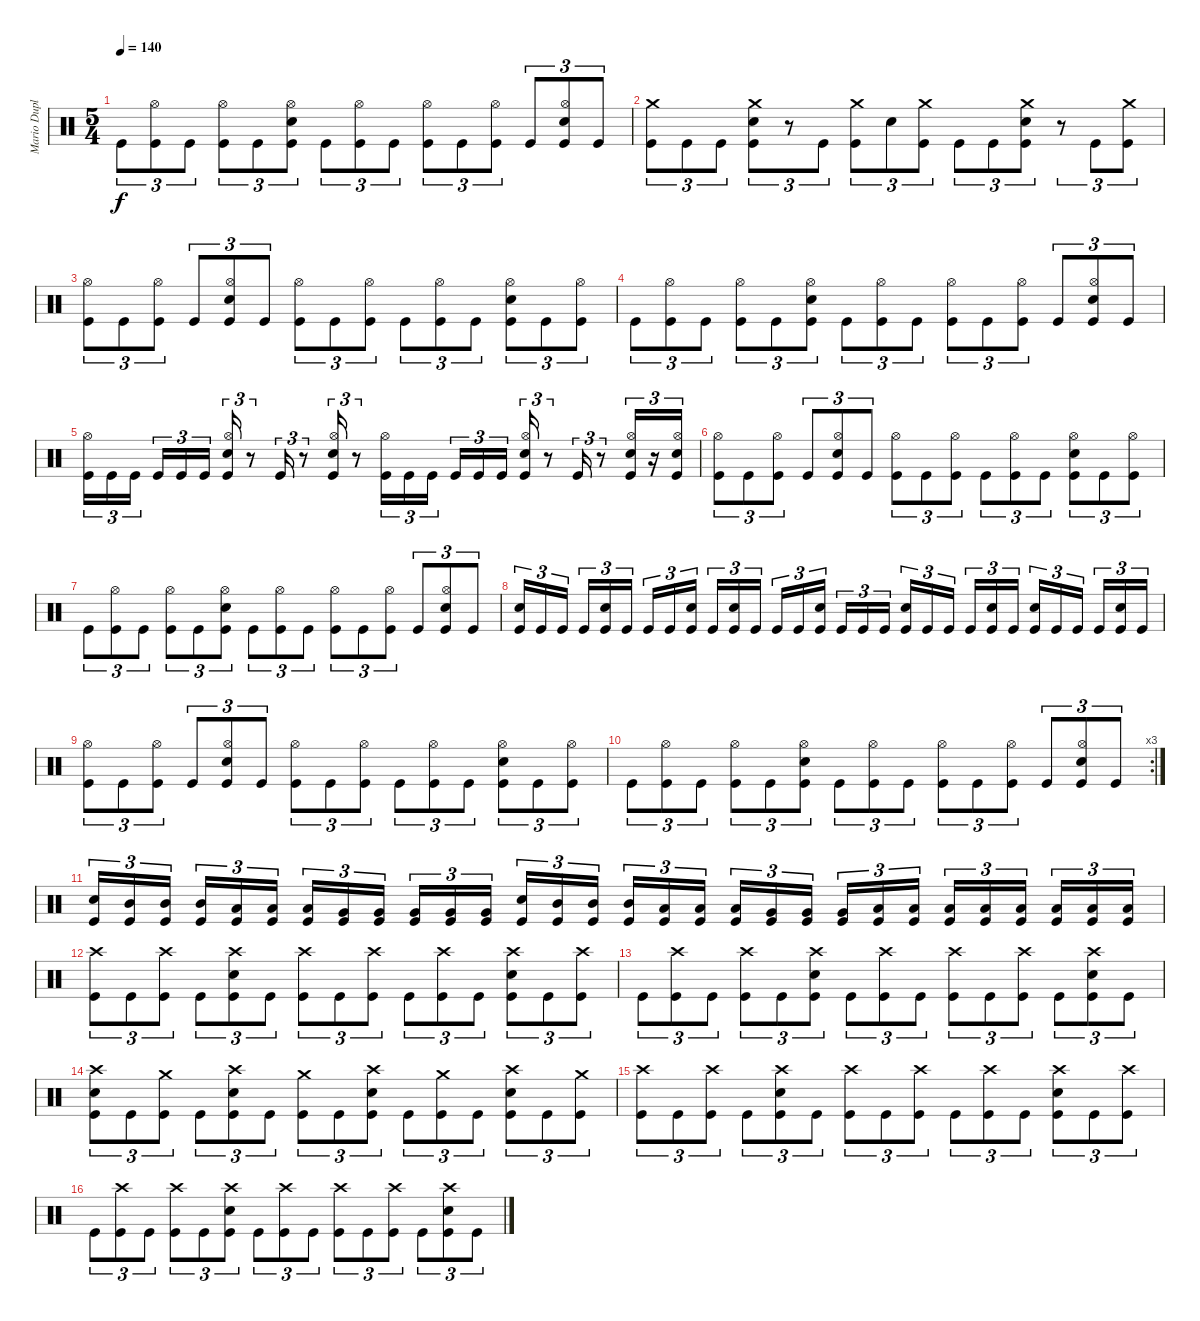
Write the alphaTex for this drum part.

\track ("Mario Duplantier" "Mario Dupl") {instrument percussion}
\staff {score}
\articulation defaults
\ts (5 4)
\tempo 140
\clef neutral
\ks c "Kick (hit)".8{tu (3 2) dy f}
("Hi-Hat (open)" "Kick (hit)").8{tu (3 2)} "Kick (hit)".8{tu (3 2)} ("Hi-Hat (open)" "Kick (hit)").8{tu (3 2)} "Kick (hit)".8{tu (3 2)} ("Hi-Hat (open)" "Electric Snare (hit)" "Kick (hit)").8{tu (3 2)} "Kick (hit)".8{tu (3 2)} ("Hi-Hat (open)" "Kick (hit)").8{tu (3 2)} "Kick (hit)".8{tu (3 2)} ("Hi-Hat (open)" "Kick (hit)").8{tu (3 2)} "Kick (hit)".8{tu (3 2)} ("Hi-Hat (open)" "Kick (hit)").8{tu (3 2)} "Kick (hit)".8{tu (3 2)} ("Hi-Hat (open)" "Electric Snare (hit)" "Kick (hit)").8{tu (3 2)} "Kick (hit)".8{tu (3 2)} |
("Crash medium (hit)" "Kick (hit)").8{tu (3 2)} "Kick (hit)".8{tu (3 2)} "Kick (hit)".8{tu (3 2)} ("Crash medium (hit)" "Electric Snare (hit)" "Kick (hit)").8{tu (3 2)} r.8{tu (3 2)} "Kick (hit)".8{tu (3 2)} ("Crash medium (hit)" "Kick (hit)").8{tu (3 2)} "Electric Snare (hit)".8{tu (3 2)} ("Crash medium (hit)" "Kick (hit)").8{tu (3 2)} "Kick (hit)".8{tu (3 2)} "Kick (hit)".8{tu (3 2)} ("Crash medium (hit)" "Electric Snare (hit)" "Kick (hit)").8{tu (3 2)} r.8{tu (3 2)} "Kick (hit)".8{tu (3 2)} ("Crash medium (hit)" "Kick (hit)").8{tu (3 2)} |
("Hi-Hat (open)" "Kick (hit)").8{tu (3 2)} "Kick (hit)".8{tu (3 2)} ("Hi-Hat (open)" "Kick (hit)").8{tu (3 2)} "Kick (hit)".8{tu (3 2)} ("Hi-Hat (open)" "Electric Snare (hit)" "Kick (hit)").8{tu (3 2)} "Kick (hit)".8{tu (3 2)} ("Hi-Hat (open)" "Kick (hit)").8{tu (3 2)} "Kick (hit)".8{tu (3 2)} ("Hi-Hat (open)" "Kick (hit)").8{tu (3 2)} "Kick (hit)".8{tu (3 2)} ("Hi-Hat (open)" "Kick (hit)").8{tu (3 2)} "Kick (hit)".8{tu (3 2)} ("Hi-Hat (open)" "Electric Snare (hit)" "Kick (hit)").8{tu (3 2)} "Kick (hit)".8{tu (3 2)} ("Hi-Hat (open)" "Kick (hit)").8{tu (3 2)} |
"Kick (hit)".8{tu (3 2)} ("Hi-Hat (open)" "Kick (hit)").8{tu (3 2)} "Kick (hit)".8{tu (3 2)} ("Hi-Hat (open)" "Kick (hit)").8{tu (3 2)} "Kick (hit)".8{tu (3 2)} ("Hi-Hat (open)" "Electric Snare (hit)" "Kick (hit)").8{tu (3 2)} "Kick (hit)".8{tu (3 2)} ("Hi-Hat (open)" "Kick (hit)").8{tu (3 2)} "Kick (hit)".8{tu (3 2)} ("Hi-Hat (open)" "Kick (hit)").8{tu (3 2)} "Kick (hit)".8{tu (3 2)} ("Hi-Hat (open)" "Kick (hit)").8{tu (3 2)} "Kick (hit)".8{tu (3 2)} ("Hi-Hat (open)" "Electric Snare (hit)" "Kick (hit)").8{tu (3 2)} "Kick (hit)".8{tu (3 2)} |
("Hi-Hat (open)" "Kick (hit)").16{tu (3 2)} "Kick (hit)".16{tu (3 2)} "Kick (hit)".16{tu (3 2) beam splitsecondary} "Kick (hit)".16{tu (3 2)} "Kick (hit)".16{tu (3 2)} "Kick (hit)".16{tu (3 2)} ("Hi-Hat (open)" "Electric Snare (hit)" "Kick (hit)").16{tu (3 2)} r.8{tu (3 2)} "Kick (hit)".16{tu (3 2)} r.8{tu (3 2)} ("Hi-Hat (open)" "Electric Snare (hit)" "Kick (hit)").16{tu (3 2)} r.8{tu (3 2)} ("Hi-Hat (open)" "Kick (hit)").16{tu (3 2)} "Kick (hit)".16{tu (3 2)} "Kick (hit)".16{tu (3 2)} "Kick (hit)".16{tu (3 2)} "Kick (hit)".16{tu (3 2)} "Kick (hit)".16{tu (3 2) beam splitsecondary} ("Hi-Hat (open)" "Electric Snare (hit)" "Kick (hit)").16{tu (3 2)} r.8{tu (3 2)} "Kick (hit)".16{tu (3 2)} r.8{tu (3 2)} ("Hi-Hat (open)" "Electric Snare (hit)" "Kick (hit)").16{tu (3 2)} r.16{tu (3 2)} ("Hi-Hat (open)" "Electric Snare (hit)" "Kick (hit)").16{tu (3 2)} |
("Hi-Hat (open)" "Kick (hit)").8{tu (3 2)} "Kick (hit)".8{tu (3 2)} ("Hi-Hat (open)" "Kick (hit)").8{tu (3 2)} "Kick (hit)".8{tu (3 2)} ("Hi-Hat (open)" "Electric Snare (hit)" "Kick (hit)").8{tu (3 2)} "Kick (hit)".8{tu (3 2)} ("Hi-Hat (open)" "Kick (hit)").8{tu (3 2)} "Kick (hit)".8{tu (3 2)} ("Hi-Hat (open)" "Kick (hit)").8{tu (3 2)} "Kick (hit)".8{tu (3 2)} ("Hi-Hat (open)" "Kick (hit)").8{tu (3 2)} "Kick (hit)".8{tu (3 2)} ("Hi-Hat (open)" "Electric Snare (hit)" "Kick (hit)").8{tu (3 2)} "Kick (hit)".8{tu (3 2)} ("Hi-Hat (open)" "Kick (hit)").8{tu (3 2)} |
"Kick (hit)".8{tu (3 2)} ("Hi-Hat (open)" "Kick (hit)").8{tu (3 2)} "Kick (hit)".8{tu (3 2)} ("Hi-Hat (open)" "Kick (hit)").8{tu (3 2)} "Kick (hit)".8{tu (3 2)} ("Hi-Hat (open)" "Electric Snare (hit)" "Kick (hit)").8{tu (3 2)} "Kick (hit)".8{tu (3 2)} ("Hi-Hat (open)" "Kick (hit)").8{tu (3 2)} "Kick (hit)".8{tu (3 2)} ("Hi-Hat (open)" "Kick (hit)").8{tu (3 2)} "Kick (hit)".8{tu (3 2)} ("Hi-Hat (open)" "Kick (hit)").8{tu (3 2)} "Kick (hit)".8{tu (3 2)} ("Hi-Hat (open)" "Electric Snare (hit)" "Kick (hit)").8{tu (3 2)} "Kick (hit)".8{tu (3 2)} |
("Electric Snare (hit)" "Kick (hit)").16{tu (3 2)} "Kick (hit)".16{tu (3 2)} "Kick (hit)".16{tu (3 2) beam splitsecondary} "Kick (hit)".16{tu (3 2)} ("Electric Snare (hit)" "Kick (hit)").16{tu (3 2)} "Kick (hit)".16{tu (3 2)} "Kick (hit)".16{tu (3 2)} "Kick (hit)".16{tu (3 2)} ("Electric Snare (hit)" "Kick (hit)").16{tu (3 2) beam splitsecondary} "Kick (hit)".16{tu (3 2)} ("Electric Snare (hit)" "Kick (hit)").16{tu (3 2)} "Kick (hit)".16{tu (3 2)} "Kick (hit)".16{tu (3 2)} "Kick (hit)".16{tu (3 2)} ("Electric Snare (hit)" "Kick (hit)").16{tu (3 2) beam splitsecondary} "Kick (hit)".16{tu (3 2)} "Kick (hit)".16{tu (3 2)} "Kick (hit)".16{tu (3 2)} ("Electric Snare (hit)" "Kick (hit)").16{tu (3 2)} "Kick (hit)".16{tu (3 2)} "Kick (hit)".16{tu (3 2) beam splitsecondary} "Kick (hit)".16{tu (3 2)} ("Electric Snare (hit)" "Kick (hit)").16{tu (3 2)} "Kick (hit)".16{tu (3 2)} ("Electric Snare (hit)" "Kick (hit)").16{tu (3 2)} "Kick (hit)".16{tu (3 2)} "Kick (hit)".16{tu (3 2) beam splitsecondary} "Kick (hit)".16{tu (3 2)} ("Electric Snare (hit)" "Kick (hit)").16{tu (3 2)} "Kick (hit)".16{tu (3 2)} |
("Hi-Hat (open)" "Kick (hit)").8{tu (3 2)} "Kick (hit)".8{tu (3 2)} ("Hi-Hat (open)" "Kick (hit)").8{tu (3 2)} "Kick (hit)".8{tu (3 2)} ("Hi-Hat (open)" "Electric Snare (hit)" "Kick (hit)").8{tu (3 2)} "Kick (hit)".8{tu (3 2)} ("Hi-Hat (open)" "Kick (hit)").8{tu (3 2)} "Kick (hit)".8{tu (3 2)} ("Hi-Hat (open)" "Kick (hit)").8{tu (3 2)} "Kick (hit)".8{tu (3 2)} ("Hi-Hat (open)" "Kick (hit)").8{tu (3 2)} "Kick (hit)".8{tu (3 2)} ("Hi-Hat (open)" "Electric Snare (hit)" "Kick (hit)").8{tu (3 2)} "Kick (hit)".8{tu (3 2)} ("Hi-Hat (open)" "Kick (hit)").8{tu (3 2)} |
\rc 3 "Kick (hit)".8{tu (3 2)}
("Hi-Hat (open)" "Kick (hit)").8{tu (3 2)} "Kick (hit)".8{tu (3 2)} ("Hi-Hat (open)" "Kick (hit)").8{tu (3 2)} "Kick (hit)".8{tu (3 2)} ("Hi-Hat (open)" "Electric Snare (hit)" "Kick (hit)").8{tu (3 2)} "Kick (hit)".8{tu (3 2)} ("Hi-Hat (open)" "Kick (hit)").8{tu (3 2)} "Kick (hit)".8{tu (3 2)} ("Hi-Hat (open)" "Kick (hit)").8{tu (3 2)} "Kick (hit)".8{tu (3 2)} ("Hi-Hat (open)" "Kick (hit)").8{tu (3 2)} "Kick (hit)".8{tu (3 2)} ("Hi-Hat (open)" "Electric Snare (hit)" "Kick (hit)").8{tu (3 2)} "Kick (hit)".8{tu (3 2)} |
("Electric Snare (hit)" "Kick (hit)").16{tu (3 2)} ("Mid Tom (hit)" "Kick (hit)").16{tu (3 2)} ("Mid Tom (hit)" "Kick (hit)").16{tu (3 2) beam splitsecondary} ("Mid Tom (hit)" "Kick (hit)").16{tu (3 2)} ("Low Tom (hit)" "Kick (hit)").16{tu (3 2)} ("Low Tom (hit)" "Kick (hit)").16{tu (3 2)} ("Low Tom (hit)" "Kick (hit)").16{tu (3 2)} ("Very Low Tom (hit)" "Kick (hit)").16{tu (3 2)} ("Very Low Tom (hit)" "Kick (hit)").16{tu (3 2) beam splitsecondary} ("Very Low Tom (hit)" "Kick (hit)").16{tu (3 2)} ("Very Low Tom (hit)" "Kick (hit)").16{tu (3 2)} ("Very Low Tom (hit)" "Kick (hit)").16{tu (3 2)} ("Electric Snare (hit)" "Kick (hit)").16{tu (3 2)} ("Mid Tom (hit)" "Kick (hit)").16{tu (3 2)} ("Mid Tom (hit)" "Kick (hit)").16{tu (3 2) beam splitsecondary} ("Mid Tom (hit)" "Kick (hit)").16{tu (3 2)} ("Low Tom (hit)" "Kick (hit)").16{tu (3 2)} ("Low Tom (hit)" "Kick (hit)").16{tu (3 2)} ("Low Tom (hit)" "Kick (hit)").16{tu (3 2)} ("Very Low Tom (hit)" "Kick (hit)").16{tu (3 2)} ("Very Low Tom (hit)" "Kick (hit)").16{tu (3 2) beam splitsecondary} ("Very Low Tom (hit)" "Kick (hit)").16{tu (3 2)} ("Low Floor Tom (hit)" "Kick (hit)").16{tu (3 2)} ("Low Floor Tom (hit)" "Kick (hit)").16{tu (3 2)} ("Low Floor Tom (hit)" "Kick (hit)").16{tu (3 2)} ("Low Floor Tom (hit)" "Kick (hit)").16{tu (3 2)} ("Low Floor Tom (hit)" "Kick (hit)").16{tu (3 2) beam splitsecondary} ("Low Floor Tom (hit)" "Kick (hit)").16{tu (3 2)} ("Low Floor Tom (hit)" "Kick (hit)").16{tu (3 2)} ("Low Floor Tom (hit)" "Kick (hit)").16{tu (3 2)} |
("Crash high (hit)" "Kick (hit)").8{tu (3 2)} "Kick (hit)".8{tu (3 2)} ("Crash high (hit)" "Kick (hit)").8{tu (3 2)} "Kick (hit)".8{tu (3 2)} ("Crash high (hit)" "Electric Snare (hit)" "Kick (hit)").8{tu (3 2)} "Kick (hit)".8{tu (3 2)} ("Crash high (hit)" "Kick (hit)").8{tu (3 2)} "Kick (hit)".8{tu (3 2)} ("Crash high (hit)" "Kick (hit)").8{tu (3 2)} "Kick (hit)".8{tu (3 2)} ("Crash high (hit)" "Kick (hit)").8{tu (3 2)} "Kick (hit)".8{tu (3 2)} ("Crash high (hit)" "Electric Snare (hit)" "Kick (hit)").8{tu (3 2)} "Kick (hit)".8{tu (3 2)} ("Crash high (hit)" "Kick (hit)").8{tu (3 2)} |
"Kick (hit)".8{tu (3 2)} ("Crash high (hit)" "Kick (hit)").8{tu (3 2)} "Kick (hit)".8{tu (3 2)} ("Crash high (hit)" "Kick (hit)").8{tu (3 2)} "Kick (hit)".8{tu (3 2)} ("Crash high (hit)" "Electric Snare (hit)" "Kick (hit)").8{tu (3 2)} "Kick (hit)".8{tu (3 2)} ("Crash high (hit)" "Kick (hit)").8{tu (3 2)} "Kick (hit)".8{tu (3 2)} ("Crash high (hit)" "Kick (hit)").8{tu (3 2)} "Kick (hit)".8{tu (3 2)} ("Crash high (hit)" "Kick (hit)").8{tu (3 2)} "Kick (hit)".8{tu (3 2)} ("Crash high (hit)" "Electric Snare (hit)" "Kick (hit)").8{tu (3 2)} "Kick (hit)".8{tu (3 2)} |
("Crash high (hit)" "Electric Snare (hit)" "Kick (hit)").8{tu (3 2)} "Kick (hit)".8{tu (3 2)} ("Crash medium (hit)" "Kick (hit)").8{tu (3 2)} "Kick (hit)".8{tu (3 2)} ("Crash high (hit)" "Electric Snare (hit)" "Kick (hit)").8{tu (3 2)} "Kick (hit)".8{tu (3 2)} ("Crash medium (hit)" "Kick (hit)").8{tu (3 2)} "Kick (hit)".8{tu (3 2)} ("Crash high (hit)" "Electric Snare (hit)" "Kick (hit)").8{tu (3 2)} "Kick (hit)".8{tu (3 2)} ("Crash medium (hit)" "Kick (hit)").8{tu (3 2)} "Kick (hit)".8{tu (3 2)} ("Crash high (hit)" "Electric Snare (hit)" "Kick (hit)").8{tu (3 2)} "Kick (hit)".8{tu (3 2)} ("Crash medium (hit)" "Kick (hit)").8{tu (3 2)} |
("Crash high (hit)" "Kick (hit)").8{tu (3 2)} "Kick (hit)".8{tu (3 2)} ("Crash high (hit)" "Kick (hit)").8{tu (3 2)} "Kick (hit)".8{tu (3 2)} ("Crash high (hit)" "Electric Snare (hit)" "Kick (hit)").8{tu (3 2)} "Kick (hit)".8{tu (3 2)} ("Crash high (hit)" "Kick (hit)").8{tu (3 2)} "Kick (hit)".8{tu (3 2)} ("Crash high (hit)" "Kick (hit)").8{tu (3 2)} "Kick (hit)".8{tu (3 2)} ("Crash high (hit)" "Kick (hit)").8{tu (3 2)} "Kick (hit)".8{tu (3 2)} ("Crash high (hit)" "Electric Snare (hit)" "Kick (hit)").8{tu (3 2)} "Kick (hit)".8{tu (3 2)} ("Crash high (hit)" "Kick (hit)").8{tu (3 2)} |
"Kick (hit)".8{tu (3 2)} ("Crash high (hit)" "Kick (hit)").8{tu (3 2)} "Kick (hit)".8{tu (3 2)} ("Crash high (hit)" "Kick (hit)").8{tu (3 2)} "Kick (hit)".8{tu (3 2)} ("Crash high (hit)" "Electric Snare (hit)" "Kick (hit)").8{tu (3 2)} "Kick (hit)".8{tu (3 2)} ("Crash high (hit)" "Kick (hit)").8{tu (3 2)} "Kick (hit)".8{tu (3 2)} ("Crash high (hit)" "Kick (hit)").8{tu (3 2)} "Kick (hit)".8{tu (3 2)} ("Crash high (hit)" "Kick (hit)").8{tu (3 2)} "Kick (hit)".8{tu (3 2)} ("Crash high (hit)" "Electric Snare (hit)" "Kick (hit)").8{tu (3 2)} "Kick (hit)".8{tu (3 2)}
